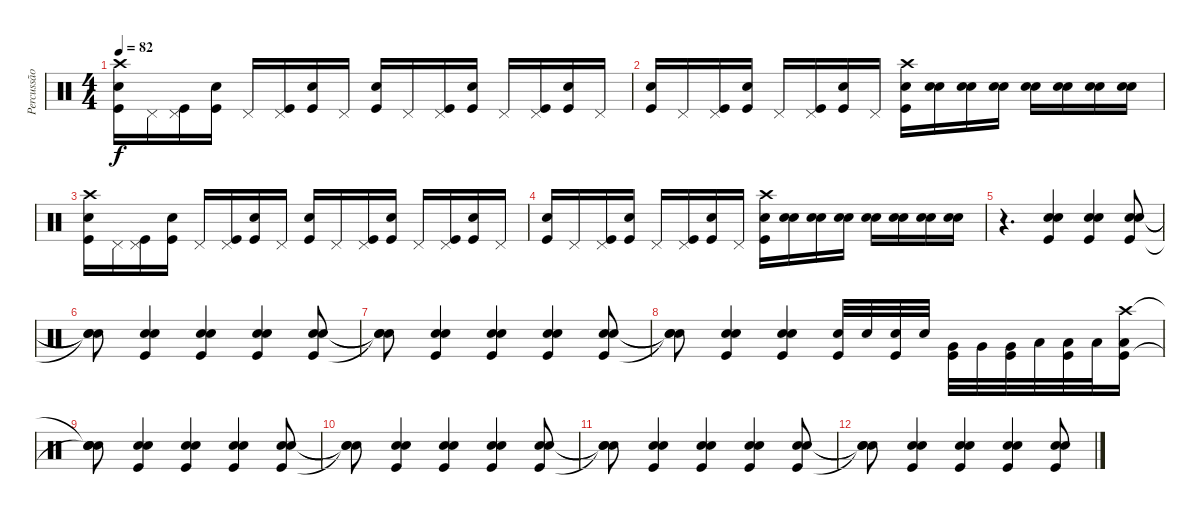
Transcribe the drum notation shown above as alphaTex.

\track ("Percussão" "Percussão") {instrument percussion}
\staff {score}
\articulation defaults
\ts (4 4)
\tempo 82
\clef neutral
\ks c
("Crash high (hit)" "Snare (hit) 2" "Kick (hit)").16{dy f} "Pedal Hi-Hat (hit)".16 ("Pedal Hi-Hat (hit)" "Kick (hit)").16 ("Snare (hit) 2" "Kick (hit)").16 "Pedal Hi-Hat (hit)".16 ("Pedal Hi-Hat (hit)" "Kick (hit)").16 ("Snare (hit) 2" "Kick (hit)").16 "Pedal Hi-Hat (hit)".16 ("Snare (hit) 2" "Kick (hit)").16 "Pedal Hi-Hat (hit)".16 ("Pedal Hi-Hat (hit)" "Kick (hit)").16 ("Snare (hit) 2" "Kick (hit)").16 "Pedal Hi-Hat (hit)".16 ("Pedal Hi-Hat (hit)" "Kick (hit)").16 ("Snare (hit) 2" "Kick (hit)").16 "Pedal Hi-Hat (hit)".16 |
("Snare (hit) 2" "Kick (hit)").16 "Pedal Hi-Hat (hit)".16 ("Pedal Hi-Hat (hit)" "Kick (hit)").16 ("Snare (hit) 2" "Kick (hit)").16 "Pedal Hi-Hat (hit)".16 ("Pedal Hi-Hat (hit)" "Kick (hit)").16 ("Snare (hit) 2" "Kick (hit)").16 "Pedal Hi-Hat (hit)".16 ("Crash high (hit)" "Snare (hit) 2" "Kick (hit)").16 ("Snare (hit) 2" "Snare (hit) 2").16 ("Snare (hit) 2" "Snare (hit) 2").16 ("Snare (hit) 2" "Snare (hit) 2").16 ("Snare (hit) 2" "Snare (hit) 2").16 ("Snare (hit) 2" "Snare (hit) 2").16 ("Snare (hit) 2" "Snare (hit) 2").16 ("Snare (hit) 2" "Snare (hit) 2").16 |
("Crash high (hit)" "Snare (hit) 2" "Kick (hit)").16 "Pedal Hi-Hat (hit)".16 ("Pedal Hi-Hat (hit)" "Kick (hit)").16 ("Snare (hit) 2" "Kick (hit)").16 "Pedal Hi-Hat (hit)".16 ("Pedal Hi-Hat (hit)" "Kick (hit)").16 ("Snare (hit) 2" "Kick (hit)").16 "Pedal Hi-Hat (hit)".16 ("Snare (hit) 2" "Kick (hit)").16 "Pedal Hi-Hat (hit)".16 ("Pedal Hi-Hat (hit)" "Kick (hit)").16 ("Snare (hit) 2" "Kick (hit)").16 "Pedal Hi-Hat (hit)".16 ("Pedal Hi-Hat (hit)" "Kick (hit)").16 ("Snare (hit) 2" "Kick (hit)").16 "Pedal Hi-Hat (hit)".16 |
("Snare (hit) 2" "Kick (hit)").16 "Pedal Hi-Hat (hit)".16 ("Pedal Hi-Hat (hit)" "Kick (hit)").16 ("Snare (hit) 2" "Kick (hit)").16 "Pedal Hi-Hat (hit)".16 ("Pedal Hi-Hat (hit)" "Kick (hit)").16 ("Snare (hit) 2" "Kick (hit)").16 "Pedal Hi-Hat (hit)".16 ("Crash high (hit)" "Snare (hit) 2" "Kick (hit)").16 ("Snare (hit) 2" "Snare (hit) 2").16 ("Snare (hit) 2" "Snare (hit) 2").16 ("Snare (hit) 2" "Snare (hit) 2").16 ("Snare (hit) 2" "Snare (hit) 2").16 ("Snare (hit) 2" "Snare (hit) 2").16 ("Snare (hit) 2" "Snare (hit) 2").16 ("Snare (hit) 2" "Snare (hit) 2").16 |
r.4{d} ("Snare (hit) 2" "Snare (hit) 2" "Kick (hit)").4{bd 60} ("Snare (hit) 2" "Snare (hit) 2" "Kick (hit)").4{bd 60} ("Snare (hit) 2" "Snare (hit) 2" "Kick (hit)").8{bd 60} |
("Snare (hit)"{t} "Snare (hit)"{t} "Snare (hit)"{t}).8 ("Snare (hit) 2" "Snare (hit) 2" "Kick (hit)").4{bd 60} ("Snare (hit) 2" "Snare (hit) 2" "Kick (hit)").4{bd 60} ("Snare (hit) 2" "Snare (hit) 2" "Kick (hit)").4{bd 60} ("Snare (hit) 2" "Snare (hit) 2" "Kick (hit)").8{bd 60} |
("Snare (hit)"{t} "Snare (hit)"{t} "Snare (hit)"{t}).8 ("Snare (hit) 2" "Snare (hit) 2" "Kick (hit)").4{bd 60} ("Snare (hit) 2" "Snare (hit) 2" "Kick (hit)").4{bd 60} ("Snare (hit) 2" "Snare (hit) 2" "Kick (hit)").4{bd 60} ("Snare (hit) 2" "Snare (hit) 2" "Kick (hit)").8{bd 60} |
("Snare (hit)"{t} "Snare (hit)"{t} "Snare (hit)"{t}).8 ("Snare (hit) 2" "Snare (hit) 2" "Kick (hit)").4{bd 60} ("Snare (hit) 2" "Snare (hit) 2" "Kick (hit)").4{bd 60} ("Snare (hit) 2" "Kick (hit)").32 "Snare (hit) 2".32 ("Snare (hit) 2" "Kick (hit)").32 "Snare (hit) 2".32 ("Very Low Tom (hit)" "Kick (hit)").32 "Very Low Tom (hit)".32 ("Very Low Tom (hit)" "Kick (hit)").32 "Low Floor Tom (hit)".32 ("Low Floor Tom (hit)" "Kick (hit)").32 "Low Floor Tom (hit)".32 ("Crash high (hit)" "Low Floor Tom (hit)" "Kick (hit)").16 |
("Snare (hit)"{t} "Metronome (bell)" "Snare (hit)"{t} "Snare (hit)").8 ("Snare (hit) 2" "Snare (hit) 2" "Kick (hit)").4{bd 60} ("Snare (hit) 2" "Snare (hit) 2" "Kick (hit)").4{bd 60} ("Snare (hit) 2" "Snare (hit) 2" "Kick (hit)").4{bd 60} ("Snare (hit) 2" "Snare (hit) 2" "Kick (hit)").8{bd 60} |
("Snare (hit)"{t} "Snare (hit)"{t} "Snare (hit)"{t}).8 ("Snare (hit) 2" "Snare (hit) 2" "Kick (hit)").4{bd 60} ("Snare (hit) 2" "Snare (hit) 2" "Kick (hit)").4{bd 60} ("Snare (hit) 2" "Snare (hit) 2" "Kick (hit)").4{bd 60} ("Snare (hit) 2" "Snare (hit) 2" "Kick (hit)").8{bd 60} |
("Snare (hit)"{t} "Snare (hit)"{t} "Snare (hit)"{t}).8 ("Snare (hit) 2" "Snare (hit) 2" "Kick (hit)").4{bd 60} ("Snare (hit) 2" "Snare (hit) 2" "Kick (hit)").4{bd 60} ("Snare (hit) 2" "Snare (hit) 2" "Kick (hit)").4{bd 60} ("Snare (hit) 2" "Snare (hit) 2" "Kick (hit)").8{bd 60} |
("Snare (hit)"{t} "Snare (hit)"{t} "Snare (hit)"{t}).8 ("Snare (hit) 2" "Snare (hit) 2" "Kick (hit)").4{bd 60} ("Snare (hit) 2" "Snare (hit) 2" "Kick (hit)").4{bd 60} ("Snare (hit) 2" "Snare (hit) 2" "Kick (hit)").4{bd 60} ("Snare (hit) 2" "Snare (hit) 2" "Kick (hit)").8{bd 60}
